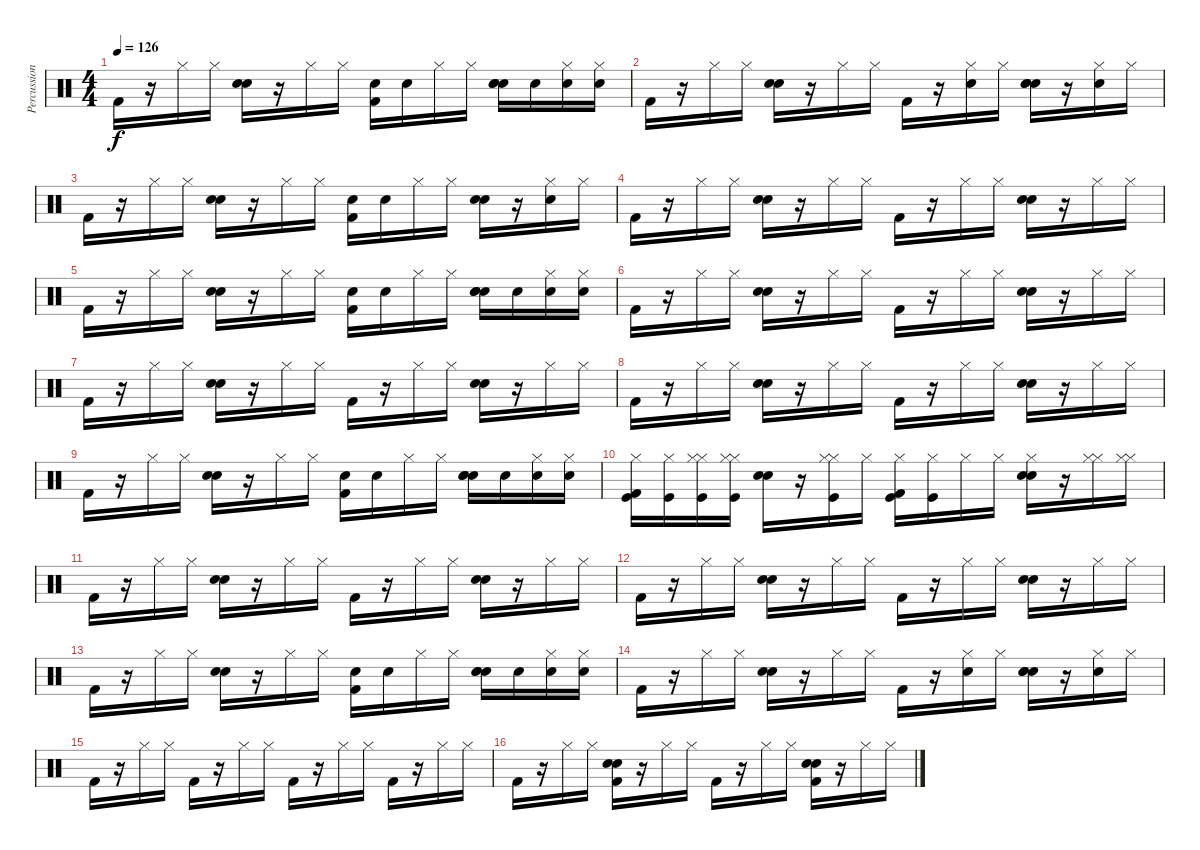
\track ("Percussion" "Percussion") {instrument percussion}
\staff {score}
\articulation defaults
\ts (4 4)
\tempo 126
\clef neutral
\ks c "Kick (hit) 2".16{dy f}
r.16 "Hi-Hat (closed)".16 "Hi-Hat (closed)".16 ("Hand Clap (hit)" "Electric Snare (hit)").16 r.16 "Hi-Hat (closed)".16 "Hi-Hat (closed)".16 ("Snare (hit) 2" "Kick (hit) 2").16 "Snare (hit) 2".16 "Hi-Hat (closed)".16 "Hi-Hat (closed)".16 ("Snare (hit) 2" "Hand Clap (hit)" "Electric Snare (hit)").16 "Snare (hit) 2".16 ("Hi-Hat (closed)" "Snare (hit) 2").16 ("Hi-Hat (closed)" "Snare (hit) 2").16 |
"Kick (hit) 2".16 r.16 "Hi-Hat (closed)".16 "Hi-Hat (closed)".16 ("Hand Clap (hit)" "Electric Snare (hit)").16 r.16 "Hi-Hat (closed)".16 "Hi-Hat (closed)".16 "Kick (hit) 2".16 r.16 ("Hi-Hat (closed)" "Snare (hit) 2").16 "Hi-Hat (closed)".16 ("Snare (hit) 2" "Hand Clap (hit)" "Electric Snare (hit)").16 r.16 ("Hi-Hat (closed)" "Snare (hit) 2").16 "Hi-Hat (closed)".16 |
"Kick (hit) 2".16 r.16 "Hi-Hat (closed)".16 "Hi-Hat (closed)".16 ("Hand Clap (hit)" "Electric Snare (hit)").16 r.16 "Hi-Hat (closed)".16 "Hi-Hat (closed)".16 ("Snare (hit) 2" "Kick (hit) 2").16 "Snare (hit) 2".16 "Hi-Hat (closed)".16 "Hi-Hat (closed)".16 ("Hand Clap (hit)" "Electric Snare (hit)").16 r.16 ("Hi-Hat (closed)" "Snare (hit) 2").16 "Hi-Hat (closed)".16 |
"Kick (hit) 2".16 r.16 "Hi-Hat (closed)".16 "Hi-Hat (closed)".16 ("Hand Clap (hit)" "Electric Snare (hit)").16 r.16 "Hi-Hat (closed)".16 "Hi-Hat (closed)".16 "Kick (hit) 2".16 r.16 "Hi-Hat (closed)".16 "Hi-Hat (closed)".16 ("Hand Clap (hit)" "Electric Snare (hit)").16 r.16 "Hi-Hat (closed)".16 "Hi-Hat (closed)".16 |
"Kick (hit) 2".16 r.16 "Hi-Hat (closed)".16 "Hi-Hat (closed)".16 ("Hand Clap (hit)" "Electric Snare (hit)").16 r.16 "Hi-Hat (closed)".16 "Hi-Hat (closed)".16 ("Snare (hit) 2" "Kick (hit) 2").16 "Snare (hit) 2".16 "Hi-Hat (closed)".16 "Hi-Hat (closed)".16 ("Snare (hit) 2" "Hand Clap (hit)" "Electric Snare (hit)").16 "Snare (hit) 2".16 ("Hi-Hat (closed)" "Snare (hit) 2").16 ("Hi-Hat (closed)" "Snare (hit) 2").16 |
"Kick (hit) 2".16 r.16 "Hi-Hat (closed)".16 "Hi-Hat (closed)".16 ("Hand Clap (hit)" "Electric Snare (hit)").16 r.16 "Hi-Hat (closed)".16 "Hi-Hat (closed)".16 "Kick (hit) 2".16 r.16 "Hi-Hat (closed)".16 "Hi-Hat (closed)".16 ("Hand Clap (hit)" "Electric Snare (hit)").16 r.16 "Hi-Hat (closed)".16 "Hi-Hat (closed)".16 |
"Kick (hit) 2".16 r.16 "Hi-Hat (closed)".16 "Hi-Hat (closed)".16 ("Hand Clap (hit)" "Electric Snare (hit)").16 r.16 "Hi-Hat (closed)".16 "Hi-Hat (closed)".16 "Kick (hit) 2".16 r.16 "Hi-Hat (closed)".16 "Hi-Hat (closed)".16 ("Hand Clap (hit)" "Electric Snare (hit)").16 r.16 "Hi-Hat (closed)".16 "Hi-Hat (closed)".16 |
"Kick (hit) 2".16 r.16 "Hi-Hat (closed)".16 "Hi-Hat (closed)".16 ("Hand Clap (hit)" "Electric Snare (hit)").16 r.16 "Hi-Hat (closed)".16 "Hi-Hat (closed)".16 "Kick (hit) 2".16 r.16 "Hi-Hat (closed)".16 "Hi-Hat (closed)".16 ("Hand Clap (hit)" "Electric Snare (hit)").16 r.16 "Hi-Hat (closed)".16 "Hi-Hat (closed)".16 |
"Kick (hit) 2".16 r.16 "Hi-Hat (closed)".16 "Hi-Hat (closed)".16 ("Hand Clap (hit)" "Electric Snare (hit)").16 r.16 "Hi-Hat (closed)".16 "Hi-Hat (closed)".16 ("Snare (hit) 2" "Kick (hit) 2").16 "Snare (hit) 2".16 "Hi-Hat (closed)".16 "Hi-Hat (closed)".16 ("Snare (hit) 2" "Hand Clap (hit)" "Electric Snare (hit)").16 "Snare (hit) 2".16 ("Hi-Hat (closed)" "Snare (hit) 2").16 ("Hi-Hat (closed)" "Snare (hit) 2").16 |
("Kick (hit)" "Hi-Hat (closed)" "Kick (hit) 2").16 ("Kick (hit)" "Hi-Hat (closed)").16 ("Hi-Hat (closed)" "Kick (hit)" "Hi-Hat (closed)").16 ("Hi-Hat (closed)" "Kick (hit)" "Hi-Hat (closed)").16 ("Hand Clap (hit)" "Electric Snare (hit)").16 r.16 ("Hi-Hat (closed)" "Kick (hit)" "Hi-Hat (closed)").16 "Hi-Hat (closed)".16 ("Kick (hit)" "Hi-Hat (closed)" "Kick (hit) 2").16 ("Kick (hit)" "Hi-Hat (closed)").16 "Hi-Hat (closed)".16 "Hi-Hat (closed)".16 ("Hi-Hat (closed)" "Hand Clap (hit)" "Electric Snare (hit)").16 r.16 ("Hi-Hat (closed)" "Hi-Hat (closed)").16 ("Hi-Hat (closed)" "Hi-Hat (closed)").16 |
"Kick (hit) 2".16 r.16 "Hi-Hat (closed)".16 "Hi-Hat (closed)".16 ("Hand Clap (hit)" "Electric Snare (hit)").16 r.16 "Hi-Hat (closed)".16 "Hi-Hat (closed)".16 "Kick (hit) 2".16 r.16 "Hi-Hat (closed)".16 "Hi-Hat (closed)".16 ("Hand Clap (hit)" "Electric Snare (hit)").16 r.16 "Hi-Hat (closed)".16 "Hi-Hat (closed)".16 |
"Kick (hit) 2".16 r.16 "Hi-Hat (closed)".16 "Hi-Hat (closed)".16 ("Hand Clap (hit)" "Electric Snare (hit)").16 r.16 "Hi-Hat (closed)".16 "Hi-Hat (closed)".16 "Kick (hit) 2".16 r.16 "Hi-Hat (closed)".16 "Hi-Hat (closed)".16 ("Hand Clap (hit)" "Electric Snare (hit)").16 r.16 "Hi-Hat (closed)".16 "Hi-Hat (closed)".16 |
"Kick (hit) 2".16 r.16 "Hi-Hat (closed)".16 "Hi-Hat (closed)".16 ("Hand Clap (hit)" "Electric Snare (hit)").16 r.16 "Hi-Hat (closed)".16 "Hi-Hat (closed)".16 ("Snare (hit) 2" "Kick (hit) 2").16 "Snare (hit) 2".16 "Hi-Hat (closed)".16 "Hi-Hat (closed)".16 ("Snare (hit) 2" "Hand Clap (hit)" "Electric Snare (hit)").16 "Snare (hit) 2".16 ("Hi-Hat (closed)" "Snare (hit) 2").16 ("Hi-Hat (closed)" "Snare (hit) 2").16 |
"Kick (hit) 2".16 r.16 "Hi-Hat (closed)".16 "Hi-Hat (closed)".16 ("Hand Clap (hit)" "Electric Snare (hit)").16 r.16 "Hi-Hat (closed)".16 "Hi-Hat (closed)".16 "Kick (hit) 2".16 r.16 ("Hi-Hat (closed)" "Snare (hit) 2").16 "Hi-Hat (closed)".16 ("Snare (hit) 2" "Hand Clap (hit)" "Electric Snare (hit)").16 r.16 ("Hi-Hat (closed)" "Snare (hit) 2").16 "Hi-Hat (closed)".16 |
"Kick (hit) 2".16 r.16 "Hi-Hat (closed)".16 "Hi-Hat (closed)".16 "Kick (hit) 2".16 r.16 "Hi-Hat (closed)".16 "Hi-Hat (closed)".16 "Kick (hit) 2".16 r.16 "Hi-Hat (closed)".16 "Hi-Hat (closed)".16 "Kick (hit) 2".16 r.16 "Hi-Hat (closed)".16 "Hi-Hat (closed)".16 |
"Kick (hit) 2".16 r.16 "Hi-Hat (closed)".16 "Hi-Hat (closed)".16 ("Hand Clap (hit)" "Electric Snare (hit)" "Kick (hit) 2").16 r.16 "Hi-Hat (closed)".16 "Hi-Hat (closed)".16 "Kick (hit) 2".16 r.16 "Hi-Hat (closed)".16 "Hi-Hat (closed)".16 ("Hand Clap (hit)" "Electric Snare (hit)" "Kick (hit) 2").16 r.16 "Hi-Hat (closed)".16 "Hi-Hat (closed)".16
